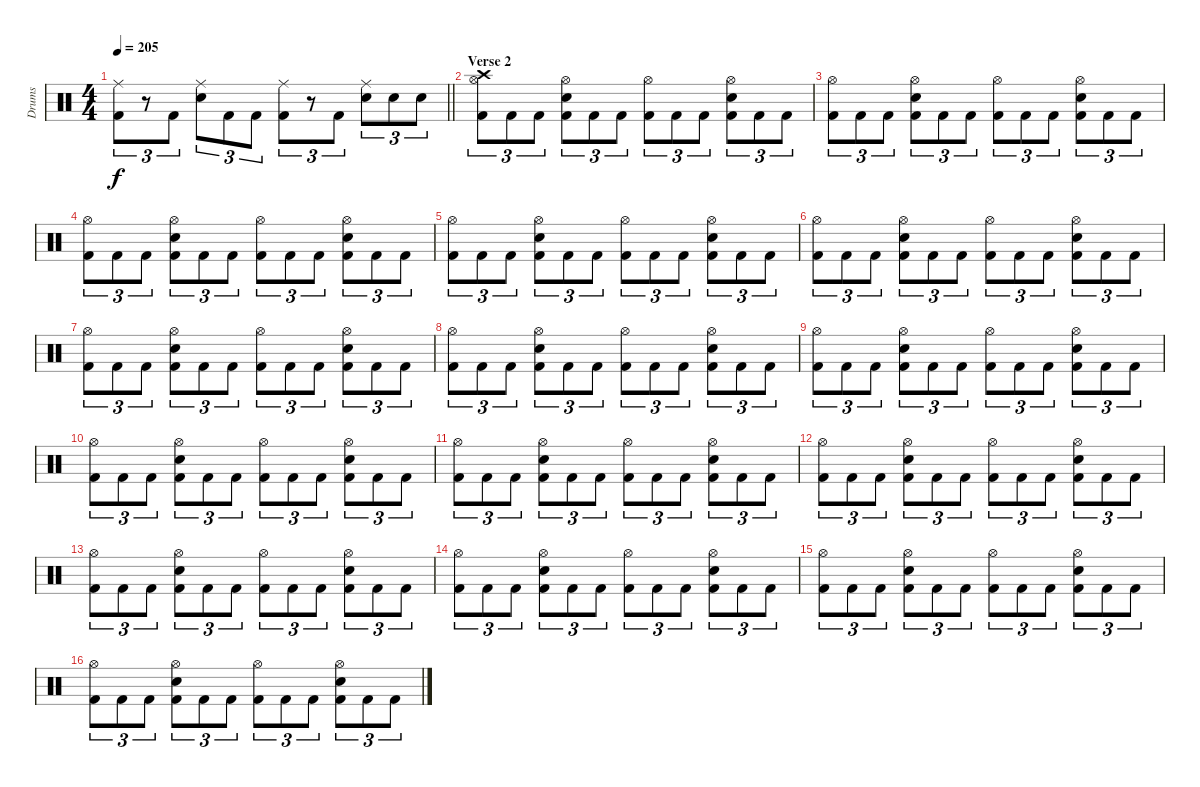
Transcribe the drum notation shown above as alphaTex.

\track ("Drums" "Drums") {instrument percussion}
\staff {score}
\articulation defaults
\ts (4 4)
\tempo 205
\clef neutral
\barLineRight lightlight
\ks c
("Ride (middle)" "Kick (hit) 2").8{tu (3 2) dy f} r.8{tu (3 2)} "Kick (hit) 2".8{tu (3 2)} ("Ride (middle)" "Snare (hit) 2").8{tu (3 2)} "Kick (hit) 2".8{tu (3 2)} "Kick (hit) 2".8{tu (3 2)} ("Ride (middle)" "Kick (hit) 2").8{tu (3 2)} r.8{tu (3 2)} "Kick (hit) 2".8{tu (3 2)} ("Ride (middle)" "Snare (hit) 2").8{tu (3 2)} "Snare (hit) 2".8{tu (3 2)} "Snare (hit) 2".8{tu (3 2)} |
\section ("" "Verse 2")
("Crash high (hit)" "Hi-Hat (open)" "Kick (hit) 2").8{tu (3 2)} "Kick (hit) 2".8{tu (3 2)} "Kick (hit) 2".8{tu (3 2)} ("Hi-Hat (open)" "Snare (hit) 2" "Kick (hit) 2").8{tu (3 2)} "Kick (hit) 2".8{tu (3 2)} "Kick (hit) 2".8{tu (3 2)} ("Hi-Hat (open)" "Kick (hit) 2").8{tu (3 2)} "Kick (hit) 2".8{tu (3 2)} "Kick (hit) 2".8{tu (3 2)} ("Hi-Hat (open)" "Snare (hit) 2" "Kick (hit) 2").8{tu (3 2)} "Kick (hit) 2".8{tu (3 2)} "Kick (hit) 2".8{tu (3 2)} |
("Hi-Hat (open)" "Kick (hit) 2").8{tu (3 2)} "Kick (hit) 2".8{tu (3 2)} "Kick (hit) 2".8{tu (3 2)} ("Hi-Hat (open)" "Snare (hit) 2" "Kick (hit) 2").8{tu (3 2)} "Kick (hit) 2".8{tu (3 2)} "Kick (hit) 2".8{tu (3 2)} ("Hi-Hat (open)" "Kick (hit) 2").8{tu (3 2)} "Kick (hit) 2".8{tu (3 2)} "Kick (hit) 2".8{tu (3 2)} ("Hi-Hat (open)" "Snare (hit) 2" "Kick (hit) 2").8{tu (3 2)} "Kick (hit) 2".8{tu (3 2)} "Kick (hit) 2".8{tu (3 2)} |
("Hi-Hat (open)" "Kick (hit) 2").8{tu (3 2)} "Kick (hit) 2".8{tu (3 2)} "Kick (hit) 2".8{tu (3 2)} ("Hi-Hat (open)" "Snare (hit) 2" "Kick (hit) 2").8{tu (3 2)} "Kick (hit) 2".8{tu (3 2)} "Kick (hit) 2".8{tu (3 2)} ("Hi-Hat (open)" "Kick (hit) 2").8{tu (3 2)} "Kick (hit) 2".8{tu (3 2)} "Kick (hit) 2".8{tu (3 2)} ("Hi-Hat (open)" "Snare (hit) 2" "Kick (hit) 2").8{tu (3 2)} "Kick (hit) 2".8{tu (3 2)} "Kick (hit) 2".8{tu (3 2)} |
("Hi-Hat (open)" "Kick (hit) 2").8{tu (3 2)} "Kick (hit) 2".8{tu (3 2)} "Kick (hit) 2".8{tu (3 2)} ("Hi-Hat (open)" "Snare (hit) 2" "Kick (hit) 2").8{tu (3 2)} "Kick (hit) 2".8{tu (3 2)} "Kick (hit) 2".8{tu (3 2)} ("Hi-Hat (open)" "Kick (hit) 2").8{tu (3 2)} "Kick (hit) 2".8{tu (3 2)} "Kick (hit) 2".8{tu (3 2)} ("Hi-Hat (open)" "Snare (hit) 2" "Kick (hit) 2").8{tu (3 2)} "Kick (hit) 2".8{tu (3 2)} "Kick (hit) 2".8{tu (3 2)} |
("Hi-Hat (open)" "Kick (hit) 2").8{tu (3 2)} "Kick (hit) 2".8{tu (3 2)} "Kick (hit) 2".8{tu (3 2)} ("Hi-Hat (open)" "Snare (hit) 2" "Kick (hit) 2").8{tu (3 2)} "Kick (hit) 2".8{tu (3 2)} "Kick (hit) 2".8{tu (3 2)} ("Hi-Hat (open)" "Kick (hit) 2").8{tu (3 2)} "Kick (hit) 2".8{tu (3 2)} "Kick (hit) 2".8{tu (3 2)} ("Hi-Hat (open)" "Snare (hit) 2" "Kick (hit) 2").8{tu (3 2)} "Kick (hit) 2".8{tu (3 2)} "Kick (hit) 2".8{tu (3 2)} |
("Hi-Hat (open)" "Kick (hit) 2").8{tu (3 2)} "Kick (hit) 2".8{tu (3 2)} "Kick (hit) 2".8{tu (3 2)} ("Hi-Hat (open)" "Snare (hit) 2" "Kick (hit) 2").8{tu (3 2)} "Kick (hit) 2".8{tu (3 2)} "Kick (hit) 2".8{tu (3 2)} ("Hi-Hat (open)" "Kick (hit) 2").8{tu (3 2)} "Kick (hit) 2".8{tu (3 2)} "Kick (hit) 2".8{tu (3 2)} ("Hi-Hat (open)" "Snare (hit) 2" "Kick (hit) 2").8{tu (3 2)} "Kick (hit) 2".8{tu (3 2)} "Kick (hit) 2".8{tu (3 2)} |
("Hi-Hat (open)" "Kick (hit) 2").8{tu (3 2)} "Kick (hit) 2".8{tu (3 2)} "Kick (hit) 2".8{tu (3 2)} ("Hi-Hat (open)" "Snare (hit) 2" "Kick (hit) 2").8{tu (3 2)} "Kick (hit) 2".8{tu (3 2)} "Kick (hit) 2".8{tu (3 2)} ("Hi-Hat (open)" "Kick (hit) 2").8{tu (3 2)} "Kick (hit) 2".8{tu (3 2)} "Kick (hit) 2".8{tu (3 2)} ("Hi-Hat (open)" "Snare (hit) 2" "Kick (hit) 2").8{tu (3 2)} "Kick (hit) 2".8{tu (3 2)} "Kick (hit) 2".8{tu (3 2)} |
("Hi-Hat (open)" "Kick (hit) 2").8{tu (3 2)} "Kick (hit) 2".8{tu (3 2)} "Kick (hit) 2".8{tu (3 2)} ("Hi-Hat (open)" "Snare (hit) 2" "Kick (hit) 2").8{tu (3 2)} "Kick (hit) 2".8{tu (3 2)} "Kick (hit) 2".8{tu (3 2)} ("Hi-Hat (open)" "Kick (hit) 2").8{tu (3 2)} "Kick (hit) 2".8{tu (3 2)} "Kick (hit) 2".8{tu (3 2)} ("Hi-Hat (open)" "Snare (hit) 2" "Kick (hit) 2").8{tu (3 2)} "Kick (hit) 2".8{tu (3 2)} "Kick (hit) 2".8{tu (3 2)} |
("Hi-Hat (open)" "Kick (hit) 2").8{tu (3 2)} "Kick (hit) 2".8{tu (3 2)} "Kick (hit) 2".8{tu (3 2)} ("Hi-Hat (open)" "Snare (hit) 2" "Kick (hit) 2").8{tu (3 2)} "Kick (hit) 2".8{tu (3 2)} "Kick (hit) 2".8{tu (3 2)} ("Hi-Hat (open)" "Kick (hit) 2").8{tu (3 2)} "Kick (hit) 2".8{tu (3 2)} "Kick (hit) 2".8{tu (3 2)} ("Hi-Hat (open)" "Snare (hit) 2" "Kick (hit) 2").8{tu (3 2)} "Kick (hit) 2".8{tu (3 2)} "Kick (hit) 2".8{tu (3 2)} |
("Hi-Hat (open)" "Kick (hit) 2").8{tu (3 2)} "Kick (hit) 2".8{tu (3 2)} "Kick (hit) 2".8{tu (3 2)} ("Hi-Hat (open)" "Snare (hit) 2" "Kick (hit) 2").8{tu (3 2)} "Kick (hit) 2".8{tu (3 2)} "Kick (hit) 2".8{tu (3 2)} ("Hi-Hat (open)" "Kick (hit) 2").8{tu (3 2)} "Kick (hit) 2".8{tu (3 2)} "Kick (hit) 2".8{tu (3 2)} ("Hi-Hat (open)" "Snare (hit) 2" "Kick (hit) 2").8{tu (3 2)} "Kick (hit) 2".8{tu (3 2)} "Kick (hit) 2".8{tu (3 2)} |
("Hi-Hat (open)" "Kick (hit) 2").8{tu (3 2)} "Kick (hit) 2".8{tu (3 2)} "Kick (hit) 2".8{tu (3 2)} ("Hi-Hat (open)" "Snare (hit) 2" "Kick (hit) 2").8{tu (3 2)} "Kick (hit) 2".8{tu (3 2)} "Kick (hit) 2".8{tu (3 2)} ("Hi-Hat (open)" "Kick (hit) 2").8{tu (3 2)} "Kick (hit) 2".8{tu (3 2)} "Kick (hit) 2".8{tu (3 2)} ("Hi-Hat (open)" "Snare (hit) 2" "Kick (hit) 2").8{tu (3 2)} "Kick (hit) 2".8{tu (3 2)} "Kick (hit) 2".8{tu (3 2)} |
("Hi-Hat (open)" "Kick (hit) 2").8{tu (3 2)} "Kick (hit) 2".8{tu (3 2)} "Kick (hit) 2".8{tu (3 2)} ("Hi-Hat (open)" "Snare (hit) 2" "Kick (hit) 2").8{tu (3 2)} "Kick (hit) 2".8{tu (3 2)} "Kick (hit) 2".8{tu (3 2)} ("Hi-Hat (open)" "Kick (hit) 2").8{tu (3 2)} "Kick (hit) 2".8{tu (3 2)} "Kick (hit) 2".8{tu (3 2)} ("Hi-Hat (open)" "Snare (hit) 2" "Kick (hit) 2").8{tu (3 2)} "Kick (hit) 2".8{tu (3 2)} "Kick (hit) 2".8{tu (3 2)} |
("Hi-Hat (open)" "Kick (hit) 2").8{tu (3 2)} "Kick (hit) 2".8{tu (3 2)} "Kick (hit) 2".8{tu (3 2)} ("Hi-Hat (open)" "Snare (hit) 2" "Kick (hit) 2").8{tu (3 2)} "Kick (hit) 2".8{tu (3 2)} "Kick (hit) 2".8{tu (3 2)} ("Hi-Hat (open)" "Kick (hit) 2").8{tu (3 2)} "Kick (hit) 2".8{tu (3 2)} "Kick (hit) 2".8{tu (3 2)} ("Hi-Hat (open)" "Snare (hit) 2" "Kick (hit) 2").8{tu (3 2)} "Kick (hit) 2".8{tu (3 2)} "Kick (hit) 2".8{tu (3 2)} |
("Hi-Hat (open)" "Kick (hit) 2").8{tu (3 2)} "Kick (hit) 2".8{tu (3 2)} "Kick (hit) 2".8{tu (3 2)} ("Hi-Hat (open)" "Snare (hit) 2" "Kick (hit) 2").8{tu (3 2)} "Kick (hit) 2".8{tu (3 2)} "Kick (hit) 2".8{tu (3 2)} ("Hi-Hat (open)" "Kick (hit) 2").8{tu (3 2)} "Kick (hit) 2".8{tu (3 2)} "Kick (hit) 2".8{tu (3 2)} ("Hi-Hat (open)" "Snare (hit) 2" "Kick (hit) 2").8{tu (3 2)} "Kick (hit) 2".8{tu (3 2)} "Kick (hit) 2".8{tu (3 2)} |
("Hi-Hat (open)" "Kick (hit) 2").8{tu (3 2)} "Kick (hit) 2".8{tu (3 2)} "Kick (hit) 2".8{tu (3 2)} ("Hi-Hat (open)" "Snare (hit) 2" "Kick (hit) 2").8{tu (3 2)} "Kick (hit) 2".8{tu (3 2)} "Kick (hit) 2".8{tu (3 2)} ("Hi-Hat (open)" "Kick (hit) 2").8{tu (3 2)} "Kick (hit) 2".8{tu (3 2)} "Kick (hit) 2".8{tu (3 2)} ("Hi-Hat (open)" "Snare (hit) 2" "Kick (hit) 2").8{tu (3 2)} "Kick (hit) 2".8{tu (3 2)} "Kick (hit) 2".8{tu (3 2)}
